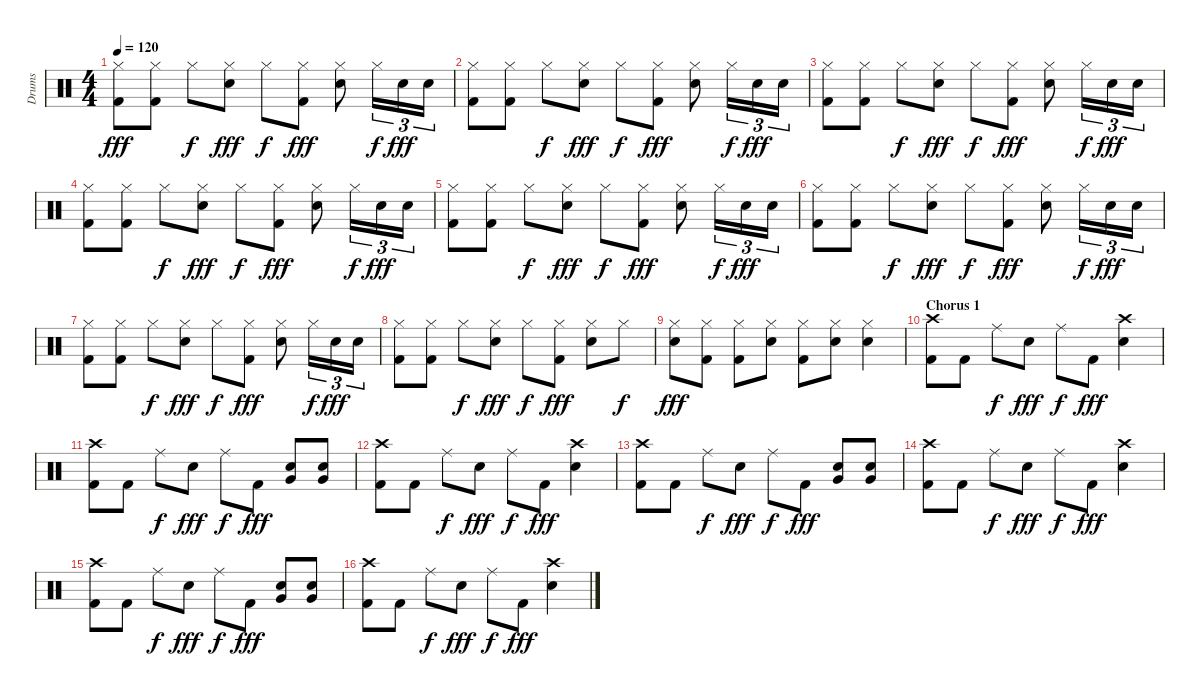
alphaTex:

\track ("Drums" "Drums") {instrument percussion}
\staff {score}
\articulation defaults
\ts (4 4)
\tempo 120
\clef neutral
\ks c
("Hi-Hat (closed)" "Kick (hit) 2").8{dy fff} ("Hi-Hat (closed)" "Kick (hit) 2").8 "Hi-Hat (closed)".8{dy f} ("Hi-Hat (closed)" "Snare (hit) 2").8{dy fff} "Hi-Hat (closed)".8{dy f} ("Hi-Hat (closed)" "Kick (hit) 2").8{dy fff} ("Hi-Hat (closed)" "Snare (hit) 2").8 "Hi-Hat (closed)".16{tu (3 2) dy f} "Snare (hit) 2".16{tu (3 2) dy fff} "Snare (hit) 2".16{tu (3 2)} |
("Hi-Hat (closed)" "Kick (hit) 2").8 ("Hi-Hat (closed)" "Kick (hit) 2").8 "Hi-Hat (closed)".8{dy f} ("Hi-Hat (closed)" "Snare (hit) 2").8{dy fff} "Hi-Hat (closed)".8{dy f} ("Hi-Hat (closed)" "Kick (hit) 2").8{dy fff} ("Hi-Hat (closed)" "Snare (hit) 2").8 "Hi-Hat (closed)".16{tu (3 2) dy f} "Snare (hit) 2".16{tu (3 2) dy fff} "Snare (hit) 2".16{tu (3 2)} |
("Hi-Hat (closed)" "Kick (hit) 2").8 ("Hi-Hat (closed)" "Kick (hit) 2").8 "Hi-Hat (closed)".8{dy f} ("Hi-Hat (closed)" "Snare (hit) 2").8{dy fff} "Hi-Hat (closed)".8{dy f} ("Hi-Hat (closed)" "Kick (hit) 2").8{dy fff} ("Hi-Hat (closed)" "Snare (hit) 2").8 "Hi-Hat (closed)".16{tu (3 2) dy f} "Snare (hit) 2".16{tu (3 2) dy fff} "Snare (hit) 2".16{tu (3 2)} |
("Hi-Hat (closed)" "Kick (hit) 2").8 ("Hi-Hat (closed)" "Kick (hit) 2").8 "Hi-Hat (closed)".8{dy f} ("Hi-Hat (closed)" "Snare (hit) 2").8{dy fff} "Hi-Hat (closed)".8{dy f} ("Hi-Hat (closed)" "Kick (hit) 2").8{dy fff} ("Hi-Hat (closed)" "Snare (hit) 2").8 "Hi-Hat (closed)".16{tu (3 2) dy f} "Snare (hit) 2".16{tu (3 2) dy fff} "Snare (hit) 2".16{tu (3 2)} |
("Hi-Hat (closed)" "Kick (hit) 2").8 ("Hi-Hat (closed)" "Kick (hit) 2").8 "Hi-Hat (closed)".8{dy f} ("Hi-Hat (closed)" "Snare (hit) 2").8{dy fff} "Hi-Hat (closed)".8{dy f} ("Hi-Hat (closed)" "Kick (hit) 2").8{dy fff} ("Hi-Hat (closed)" "Snare (hit) 2").8 "Hi-Hat (closed)".16{tu (3 2) dy f} "Snare (hit) 2".16{tu (3 2) dy fff} "Snare (hit) 2".16{tu (3 2)} |
("Hi-Hat (closed)" "Kick (hit) 2").8 ("Hi-Hat (closed)" "Kick (hit) 2").8 "Hi-Hat (closed)".8{dy f} ("Hi-Hat (closed)" "Snare (hit) 2").8{dy fff} "Hi-Hat (closed)".8{dy f} ("Hi-Hat (closed)" "Kick (hit) 2").8{dy fff} ("Hi-Hat (closed)" "Snare (hit) 2").8 "Hi-Hat (closed)".16{tu (3 2) dy f} "Snare (hit) 2".16{tu (3 2) dy fff} "Snare (hit) 2".16{tu (3 2)} |
("Hi-Hat (closed)" "Kick (hit) 2").8 ("Hi-Hat (closed)" "Kick (hit) 2").8 "Hi-Hat (closed)".8{dy f} ("Hi-Hat (closed)" "Snare (hit) 2").8{dy fff} "Hi-Hat (closed)".8{dy f} ("Hi-Hat (closed)" "Kick (hit) 2").8{dy fff} ("Hi-Hat (closed)" "Snare (hit) 2").8 "Hi-Hat (closed)".16{tu (3 2) dy f} "Snare (hit) 2".16{tu (3 2) dy fff} "Snare (hit) 2".16{tu (3 2)} |
("Hi-Hat (closed)" "Kick (hit) 2").8 ("Hi-Hat (closed)" "Kick (hit) 2").8 "Hi-Hat (closed)".8{dy f} ("Hi-Hat (closed)" "Snare (hit) 2").8{dy fff} "Hi-Hat (closed)".8{dy f} ("Hi-Hat (closed)" "Kick (hit) 2").8{dy fff} ("Hi-Hat (closed)" "Snare (hit) 2").8 "Hi-Hat (closed)".8{dy f} |
("Hi-Hat (closed)" "Snare (hit) 2").8{dy fff} ("Hi-Hat (closed)" "Kick (hit) 2").8 ("Hi-Hat (closed)" "Kick (hit) 2").8 ("Hi-Hat (closed)" "Snare (hit) 2").8 ("Hi-Hat (closed)" "Kick (hit) 2").8 ("Hi-Hat (closed)" "Snare (hit) 2").8 ("Hi-Hat (closed)" "Snare (hit) 2").4 |
\section ("" "Chorus 1")
("Crash high (hit)" "Kick (hit) 2").8 "Kick (hit) 2".8 "Ride (middle)".8{dy f} "Snare (hit) 2".8{dy fff} "Ride (middle)".8{dy f} "Kick (hit) 2".8{dy fff} ("Crash high (hit)" "Snare (hit) 2").4 |
("Crash high (hit)" "Kick (hit) 2").8 "Kick (hit) 2".8 "Ride (middle)".8{dy f} "Snare (hit) 2".8{dy fff} "Ride (middle)".8{dy f} "Kick (hit) 2".8{dy fff} ("Snare (hit) 2" "Very Low Tom (hit)").8 ("Snare (hit) 2" "Very Low Tom (hit)").8 |
("Crash high (hit)" "Kick (hit) 2").8 "Kick (hit) 2".8 "Ride (middle)".8{dy f} "Snare (hit) 2".8{dy fff} "Ride (middle)".8{dy f} "Kick (hit) 2".8{dy fff} ("Crash high (hit)" "Snare (hit) 2").4 |
("Crash high (hit)" "Kick (hit) 2").8 "Kick (hit) 2".8 "Ride (middle)".8{dy f} "Snare (hit) 2".8{dy fff} "Ride (middle)".8{dy f} "Kick (hit) 2".8{dy fff} ("Snare (hit) 2" "Very Low Tom (hit)").8 ("Snare (hit) 2" "Very Low Tom (hit)").8 |
("Crash high (hit)" "Kick (hit) 2").8 "Kick (hit) 2".8 "Ride (middle)".8{dy f} "Snare (hit) 2".8{dy fff} "Ride (middle)".8{dy f} "Kick (hit) 2".8{dy fff} ("Crash high (hit)" "Snare (hit) 2").4 |
("Crash high (hit)" "Kick (hit) 2").8 "Kick (hit) 2".8 "Ride (middle)".8{dy f} "Snare (hit) 2".8{dy fff} "Ride (middle)".8{dy f} "Kick (hit) 2".8{dy fff} ("Snare (hit) 2" "Very Low Tom (hit)").8 ("Snare (hit) 2" "Very Low Tom (hit)").8 |
("Crash high (hit)" "Kick (hit) 2").8 "Kick (hit) 2".8 "Ride (middle)".8{dy f} "Snare (hit) 2".8{dy fff} "Ride (middle)".8{dy f} "Kick (hit) 2".8{dy fff} ("Crash high (hit)" "Snare (hit) 2").4
